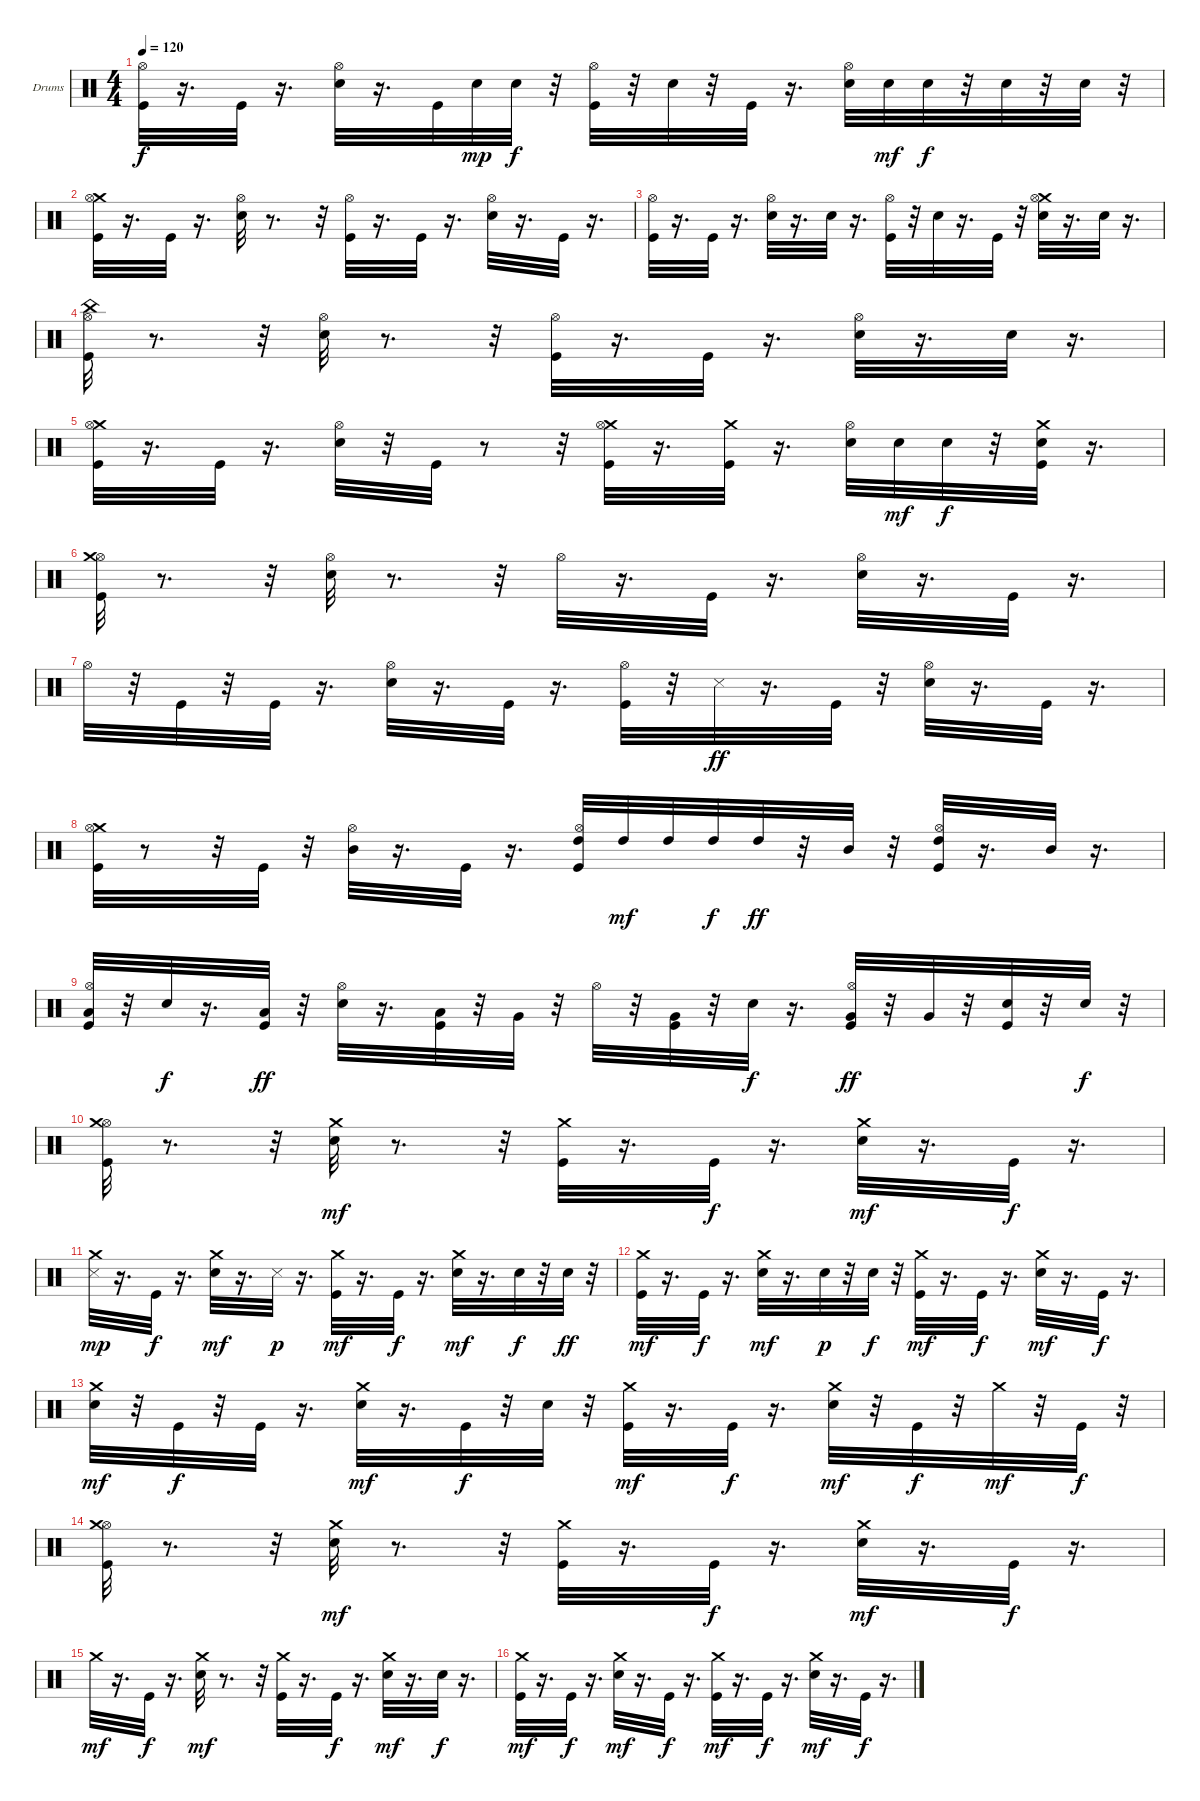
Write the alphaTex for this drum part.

\bracketExtendMode groupsimilarinstruments
\firstSystemTrackNameOrientation horizontal
\otherSystemsTrackNameOrientation horizontal
\track ("Drumkit" "Drums") {instrument percussion}
\staff {score}
\articulation defaults
\ts (4 4)
\tempo 120
\clef neutral
\ks c
("Kick (hit)" "Hi-Hat (open)").32{dy f} r.16{d} "Kick (hit)".32 r.16{d} ("Snare (hit) 2" "Hi-Hat (open)").32 r.16{d} "Kick (hit)".32 "Snare (hit) 2".32{dy mp} "Snare (hit) 2".32{dy f} r.32 ("Kick (hit)" "Hi-Hat (open)").32 r.32 "Snare (hit) 2".32 r.32 "Kick (hit)".32 r.16{d} ("Snare (hit) 2" "Hi-Hat (open)").32 "Snare (hit) 2".32{dy mf} "Snare (hit) 2".32{dy f} r.32 "Snare (hit) 2".32 r.32 "Snare (hit) 2".32 r.32 |
("Crash medium (hit)" "Hi-Hat (open)" "Kick (hit)").32 r.16{d} "Kick (hit)".32 r.16{d} ("Snare (hit) 2" "Hi-Hat (open)").32 r.8{d} r.32 ("Kick (hit)" "Hi-Hat (open)").32 r.16{d} "Kick (hit)".32 r.16{d} ("Snare (hit) 2" "Hi-Hat (open)").32 r.16{d} "Kick (hit)".32 r.16{d} |
("Kick (hit)" "Hi-Hat (open)").32 r.16{d} "Kick (hit)".32 r.16{d} ("Snare (hit) 2" "Hi-Hat (open)").32 r.16{d} "Snare (hit) 2".32 r.16{d} ("Kick (hit)" "Hi-Hat (open)").32 r.32 "Snare (hit) 2".32 r.16{d} "Kick (hit)".32 r.32 ("Crash medium (hit)" "Snare (hit) 2" "Hi-Hat (open)").32 r.16{d} "Snare (hit) 2".32 r.16{d} |
("Kick (hit)" "Hi-Hat (open)" "China (hit)").32 r.8{d} r.32 ("Snare (hit) 2" "Hi-Hat (open)").32 r.8{d} r.32 ("Kick (hit)" "Hi-Hat (open)").32 r.16{d} "Kick (hit)".32 r.16{d} ("Snare (hit) 2" "Hi-Hat (open)").32 r.16{d} "Snare (hit) 2".32 r.16{d} |
("Crash medium (hit)" "Kick (hit)" "Hi-Hat (open)").32 r.16{d} "Kick (hit)".32 r.16{d} ("Snare (hit) 2" "Hi-Hat (open)").32 r.32 "Kick (hit)".32 r.8 r.32 ("Crash medium (hit)" "Kick (hit)" "Hi-Hat (open)").32 r.16{d} ("Crash medium (hit)" "Kick (hit)").32 r.16{d} ("Snare (hit) 2" "Hi-Hat (open)").32 "Snare (hit) 2".32{dy mf} "Snare (hit) 2".32{dy f} r.32 ("Kick (hit)" "Crash medium (hit)" "Snare (hit) 2").32 r.16{d} |
("Kick (hit)" "Hi-Hat (open)" "Crash medium (hit)").32 r.8{d} r.32 ("Snare (hit) 2" "Hi-Hat (open)").32 r.8{d} r.32 "Hi-Hat (open)".32 r.16{d} "Kick (hit)".32 r.16{d} ("Snare (hit) 2" "Hi-Hat (open)").32 r.16{d} "Kick (hit)".32 r.16{d} |
"Hi-Hat (open)".32 r.32 "Kick (hit)".32 r.32 "Kick (hit)".32 r.16{d} ("Snare (hit) 2" "Hi-Hat (open)").32 r.16{d} "Kick (hit)".32 r.16{d} ("Kick (hit)" "Hi-Hat (open)").32 r.32 "Snare (side stick) 3".32{dy ff} r.16{d} "Kick (hit)".32 r.32 ("Snare (hit) 2" "Hi-Hat (open)").32 r.16{d} "Kick (hit)".32 r.16{d} |
("Crash medium (hit)" "Hi-Hat (open)" "Kick (hit)").32 r.8 r.32 "Kick (hit)".32 r.32 ("Hi-Hat (open)" "Mid Tom (hit)").32 r.16{d} "Kick (hit)".32 r.16{d} ("Kick (hit)" "Hi-Hat (open)" "High Tom (hit)").32 "High Tom (hit)".32{dy mf} "High Tom (hit)".32 "High Tom (hit)".32{dy f} "High Tom (hit)".32{dy ff} r.32 "Mid Tom (hit)".32 r.32 ("Kick (hit)" "Hi-Hat (open)" "High Tom (hit)").32 r.16{d} "Mid Tom (hit)".32 r.16{d} |
("Hi-Hat (open)" "Kick (hit)" "Low Tom (hit)").32 r.32 "Snare (hit) 2".32{dy f} r.16{d} ("Kick (hit)" "Low Tom (hit)").32{dy ff} r.32 ("Hi-Hat (open)" "Snare (hit) 2").32 r.16{d} ("Kick (hit)" "Low Tom (hit)").32 r.32 "Very Low Tom (hit)".32 r.32 "Hi-Hat (open)".32 r.32 ("Kick (hit)" "Very Low Tom (hit)").32 r.32 "Snare (hit) 2".32{dy f} r.16{d} ("Hi-Hat (open)" "Kick (hit)" "Very Low Tom (hit)").32{dy ff} r.32 "Very Low Tom (hit)".32 r.32 ("Kick (hit)" "Snare (hit) 2").32 r.32 "Snare (hit) 2".32{dy f} r.32 |
("Hi-Hat (open)" "Crash medium (hit)" "Kick (hit)").32 r.8{d} r.32 ("Crash medium (hit)" "Snare (hit) 2").32{dy mf} r.8{d} r.32 ("Crash medium (hit)" "Kick (hit)").32 r.16{d} "Kick (hit)".32{dy f} r.16{d} ("Crash medium (hit)" "Snare (hit) 2").32{dy mf} r.16{d} "Kick (hit)".32{dy f} r.16{d} |
("Crash medium (hit)" "Snare (side stick) 3").32{dy mp} r.16{d} "Kick (hit)".32{dy f} r.16{d} ("Crash medium (hit)" "Snare (hit) 2").32{dy mf} r.16{d} "Snare (side stick) 3".32{dy p} r.16{d} ("Crash medium (hit)" "Kick (hit)").32{dy mf} r.16{d} "Kick (hit)".32{dy f} r.16{d} ("Crash medium (hit)" "Snare (hit) 2").32{dy mf} r.16{d} "Snare (hit) 2".32{dy f} r.32 "Snare (hit) 2".32{dy ff} r.32 |
("Crash medium (hit)" "Kick (hit)").32{dy mf} r.16{d} "Kick (hit)".32{dy f} r.16{d} ("Crash medium (hit)" "Snare (hit) 2").32{dy mf} r.16{d} "Snare (hit) 2".32{dy p} r.32 "Snare (hit) 2".32{dy f} r.32 ("Crash medium (hit)" "Kick (hit)").32{dy mf} r.16{d} "Kick (hit)".32{dy f} r.16{d} ("Crash medium (hit)" "Snare (hit) 2").32{dy mf} r.16{d} "Kick (hit)".32{dy f} r.16{d} |
("Crash medium (hit)" "Snare (hit) 2").32{dy mf} r.32 "Kick (hit)".32{dy f} r.32 "Kick (hit)".32 r.16{d} ("Crash medium (hit)" "Snare (hit) 2").32{dy mf} r.16{d} "Kick (hit)".32{dy f} r.32 "Snare (hit) 2".32 r.32 ("Crash medium (hit)" "Kick (hit)").32{dy mf} r.16{d} "Kick (hit)".32{dy f} r.16{d} ("Crash medium (hit)" "Snare (hit) 2").32{dy mf} r.32 "Kick (hit)".32{dy f} r.32 "Crash medium (hit)".32{dy mf} r.32 "Kick (hit)".32{dy f} r.32 |
("Hi-Hat (open)" "Crash medium (hit)" "Kick (hit)").32 r.8{d} r.32 ("Crash medium (hit)" "Snare (hit) 2").32{dy mf} r.8{d} r.32 ("Crash medium (hit)" "Kick (hit)").32 r.16{d} "Kick (hit)".32{dy f} r.16{d} ("Crash medium (hit)" "Snare (hit) 2").32{dy mf} r.16{d} "Kick (hit)".32{dy f} r.16{d} |
"Crash medium (hit)".32{dy mf} r.16{d} "Kick (hit)".32{dy f} r.16{d} ("Crash medium (hit)" "Snare (hit) 2").32{dy mf} r.8{d} r.32 ("Crash medium (hit)" "Kick (hit)").32 r.16{d} "Kick (hit)".32{dy f} r.16{d} ("Crash medium (hit)" "Snare (hit) 2").32{dy mf} r.16{d} "Snare (hit) 2".32{dy f} r.16{d} |
("Crash medium (hit)" "Kick (hit)").32{dy mf} r.16{d} "Kick (hit)".32{dy f} r.16{d} ("Crash medium (hit)" "Snare (hit) 2").32{dy mf} r.16{d} "Kick (hit)".32{dy f} r.16{d} ("Crash medium (hit)" "Kick (hit)").32{dy mf} r.16{d} "Kick (hit)".32{dy f} r.16{d} ("Crash medium (hit)" "Snare (hit) 2").32{dy mf} r.16{d} "Kick (hit)".32{dy f} r.16{d}
